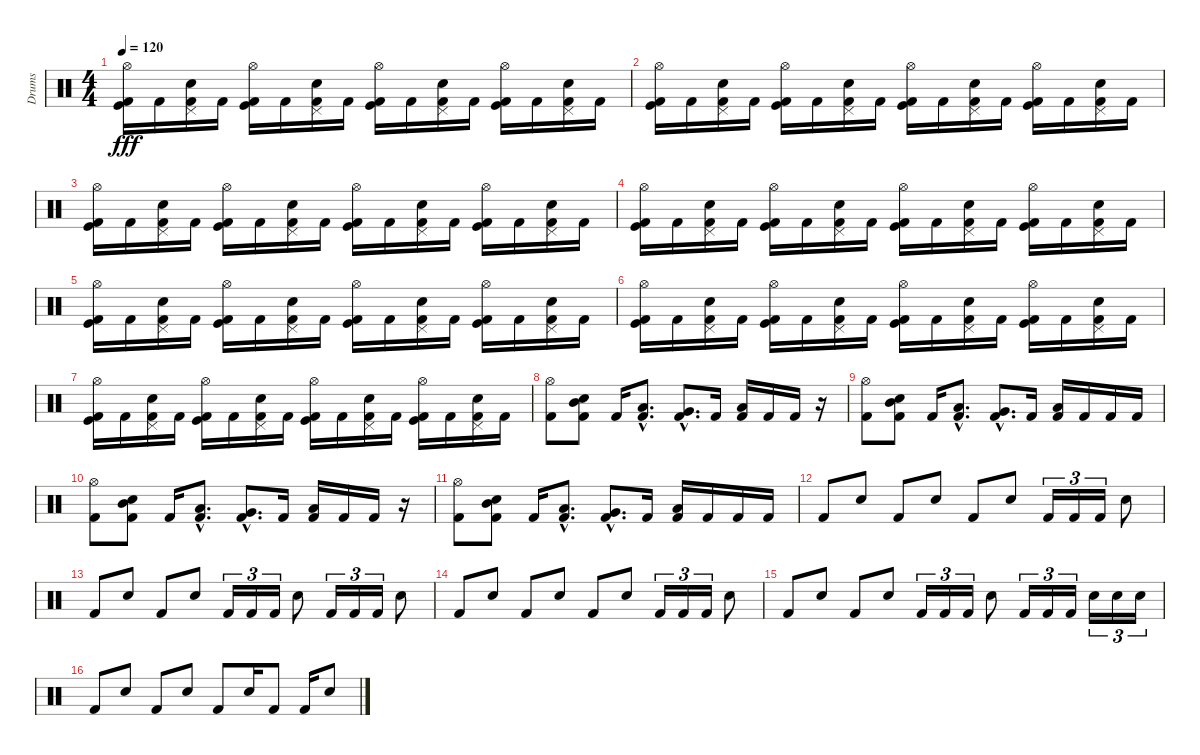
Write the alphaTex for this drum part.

\track ("Drums" "Drums") {instrument percussion}
\staff {score}
\articulation defaults
\ts (4 4)
\tempo 120
\clef neutral
\ks c
("Hi-Hat (open)" "Kick (hit) 2" "Kick (hit)").16{dy fff} "Kick (hit) 2".16 ("Pedal Hi-Hat (hit)" "Snare (hit) 2" "Kick (hit) 2").16 "Kick (hit) 2".16 ("Hi-Hat (open)" "Kick (hit) 2" "Kick (hit)").16 "Kick (hit) 2".16 ("Pedal Hi-Hat (hit)" "Snare (hit) 2" "Kick (hit) 2").16 "Kick (hit) 2".16 ("Hi-Hat (open)" "Kick (hit) 2" "Kick (hit)").16 "Kick (hit) 2".16 ("Pedal Hi-Hat (hit)" "Snare (hit) 2" "Kick (hit) 2").16 "Kick (hit) 2".16 ("Hi-Hat (open)" "Kick (hit) 2" "Kick (hit)").16 "Kick (hit) 2".16 ("Pedal Hi-Hat (hit)" "Snare (hit) 2" "Kick (hit) 2").16 "Kick (hit) 2".16 |
("Hi-Hat (open)" "Kick (hit) 2" "Kick (hit)").16 "Kick (hit) 2".16 ("Pedal Hi-Hat (hit)" "Snare (hit) 2" "Kick (hit) 2").16 "Kick (hit) 2".16 ("Hi-Hat (open)" "Kick (hit) 2" "Kick (hit)").16 "Kick (hit) 2".16 ("Pedal Hi-Hat (hit)" "Snare (hit) 2" "Kick (hit) 2").16 "Kick (hit) 2".16 ("Hi-Hat (open)" "Kick (hit) 2" "Kick (hit)").16 "Kick (hit) 2".16 ("Pedal Hi-Hat (hit)" "Snare (hit) 2" "Kick (hit) 2").16 "Kick (hit) 2".16 ("Hi-Hat (open)" "Kick (hit) 2" "Kick (hit)").16 "Kick (hit) 2".16 ("Pedal Hi-Hat (hit)" "Snare (hit) 2" "Kick (hit) 2").16 "Kick (hit) 2".16 |
("Hi-Hat (open)" "Kick (hit) 2" "Kick (hit)").16 "Kick (hit) 2".16 ("Pedal Hi-Hat (hit)" "Snare (hit) 2" "Kick (hit) 2").16 "Kick (hit) 2".16 ("Hi-Hat (open)" "Kick (hit) 2" "Kick (hit)").16 "Kick (hit) 2".16 ("Pedal Hi-Hat (hit)" "Snare (hit) 2" "Kick (hit) 2").16 "Kick (hit) 2".16 ("Hi-Hat (open)" "Kick (hit) 2" "Kick (hit)").16 "Kick (hit) 2".16 ("Pedal Hi-Hat (hit)" "Snare (hit) 2" "Kick (hit) 2").16 "Kick (hit) 2".16 ("Hi-Hat (open)" "Kick (hit) 2" "Kick (hit)").16 "Kick (hit) 2".16 ("Pedal Hi-Hat (hit)" "Snare (hit) 2" "Kick (hit) 2").16 "Kick (hit) 2".16 |
("Hi-Hat (open)" "Kick (hit) 2" "Kick (hit)").16 "Kick (hit) 2".16 ("Pedal Hi-Hat (hit)" "Snare (hit) 2" "Kick (hit) 2").16 "Kick (hit) 2".16 ("Hi-Hat (open)" "Kick (hit) 2" "Kick (hit)").16 "Kick (hit) 2".16 ("Pedal Hi-Hat (hit)" "Snare (hit) 2" "Kick (hit) 2").16 "Kick (hit) 2".16 ("Hi-Hat (open)" "Kick (hit) 2" "Kick (hit)").16 "Kick (hit) 2".16 ("Pedal Hi-Hat (hit)" "Snare (hit) 2" "Kick (hit) 2").16 "Kick (hit) 2".16 ("Hi-Hat (open)" "Kick (hit) 2" "Kick (hit)").16 "Kick (hit) 2".16 ("Pedal Hi-Hat (hit)" "Snare (hit) 2" "Kick (hit) 2").16 "Kick (hit) 2".16 |
("Hi-Hat (open)" "Kick (hit) 2" "Kick (hit)").16 "Kick (hit) 2".16 ("Pedal Hi-Hat (hit)" "Snare (hit) 2" "Kick (hit) 2").16 "Kick (hit) 2".16 ("Hi-Hat (open)" "Kick (hit) 2" "Kick (hit)").16 "Kick (hit) 2".16 ("Pedal Hi-Hat (hit)" "Snare (hit) 2" "Kick (hit) 2").16 "Kick (hit) 2".16 ("Hi-Hat (open)" "Kick (hit) 2" "Kick (hit)").16 "Kick (hit) 2".16 ("Pedal Hi-Hat (hit)" "Snare (hit) 2" "Kick (hit) 2").16 "Kick (hit) 2".16 ("Hi-Hat (open)" "Kick (hit) 2" "Kick (hit)").16 "Kick (hit) 2".16 ("Pedal Hi-Hat (hit)" "Snare (hit) 2" "Kick (hit) 2").16 "Kick (hit) 2".16 |
("Hi-Hat (open)" "Kick (hit) 2" "Kick (hit)").16 "Kick (hit) 2".16 ("Pedal Hi-Hat (hit)" "Snare (hit) 2" "Kick (hit) 2").16 "Kick (hit) 2".16 ("Hi-Hat (open)" "Kick (hit) 2" "Kick (hit)").16 "Kick (hit) 2".16 ("Pedal Hi-Hat (hit)" "Snare (hit) 2" "Kick (hit) 2").16 "Kick (hit) 2".16 ("Hi-Hat (open)" "Kick (hit) 2" "Kick (hit)").16 "Kick (hit) 2".16 ("Pedal Hi-Hat (hit)" "Snare (hit) 2" "Kick (hit) 2").16 "Kick (hit) 2".16 ("Hi-Hat (open)" "Kick (hit) 2" "Kick (hit)").16 "Kick (hit) 2".16 ("Pedal Hi-Hat (hit)" "Snare (hit) 2" "Kick (hit) 2").16 "Kick (hit) 2".16 |
("Hi-Hat (open)" "Kick (hit) 2" "Kick (hit)").16 "Kick (hit) 2".16 ("Pedal Hi-Hat (hit)" "Snare (hit) 2" "Kick (hit) 2").16 "Kick (hit) 2".16 ("Hi-Hat (open)" "Kick (hit) 2" "Kick (hit)").16 "Kick (hit) 2".16 ("Pedal Hi-Hat (hit)" "Snare (hit) 2" "Kick (hit) 2").16 "Kick (hit) 2".16 ("Hi-Hat (open)" "Kick (hit) 2" "Kick (hit)").16 "Kick (hit) 2".16 ("Pedal Hi-Hat (hit)" "Snare (hit) 2" "Kick (hit) 2").16 "Kick (hit) 2".16 ("Hi-Hat (open)" "Kick (hit) 2" "Kick (hit)").16 "Kick (hit) 2".16 ("Pedal Hi-Hat (hit)" "Snare (hit) 2" "Kick (hit) 2").16 "Kick (hit) 2".16 |
("Kick (hit) 2" "Hi-Hat (open)").8 ("Mid Tom (hit)" "Snare (hit) 2" "Kick (hit) 2").8 "Kick (hit) 2".16 ("Low Tom (hit)"{hac} "Kick (hit) 2"{hac}).8{d} ("Very Low Tom (hit)"{hac} "Kick (hit) 2"{hac}).8{d} "Kick (hit) 2".16 ("Low Floor Tom (hit)" "Kick (hit) 2").16 "Kick (hit) 2".16 "Kick (hit) 2".16 r.16 |
("Kick (hit) 2" "Hi-Hat (open)").8 ("Mid Tom (hit)" "Snare (hit) 2" "Kick (hit) 2").8 "Kick (hit) 2".16 ("Low Tom (hit)"{hac} "Kick (hit) 2"{hac}).8{d} ("Very Low Tom (hit)"{hac} "Kick (hit) 2"{hac}).8{d} "Kick (hit) 2".16 ("Low Floor Tom (hit)" "Kick (hit) 2").16 "Kick (hit) 2".16 "Kick (hit) 2".16 "Kick (hit) 2".16 |
("Kick (hit) 2" "Hi-Hat (open)").8 ("Mid Tom (hit)" "Snare (hit) 2" "Kick (hit) 2").8 "Kick (hit) 2".16 ("Low Tom (hit)"{hac} "Kick (hit) 2"{hac}).8{d} ("Very Low Tom (hit)"{hac} "Kick (hit) 2"{hac}).8{d} "Kick (hit) 2".16 ("Low Floor Tom (hit)" "Kick (hit) 2").16 "Kick (hit) 2".16 "Kick (hit) 2".16 r.16 |
("Kick (hit) 2" "Hi-Hat (open)").8 ("Mid Tom (hit)" "Snare (hit) 2" "Kick (hit) 2").8 "Kick (hit) 2".16 ("Low Tom (hit)"{hac} "Kick (hit) 2"{hac}).8{d} ("Very Low Tom (hit)"{hac} "Kick (hit) 2"{hac}).8{d} "Kick (hit) 2".16 ("Low Floor Tom (hit)" "Kick (hit) 2").16 "Kick (hit) 2".16 "Kick (hit) 2".16 "Kick (hit) 2".16 |
"Kick (hit) 2".8 "Snare (hit) 2".8 "Kick (hit) 2".8 "Snare (hit) 2".8 "Kick (hit) 2".8 "Snare (hit) 2".8 "Kick (hit) 2".16{tu (3 2)} "Kick (hit) 2".16{tu (3 2)} "Kick (hit) 2".16{tu (3 2)} "Snare (hit) 2".8 |
"Kick (hit) 2".8 "Snare (hit) 2".8 "Kick (hit) 2".8 "Snare (hit) 2".8 "Kick (hit) 2".16{tu (3 2)} "Kick (hit) 2".16{tu (3 2)} "Kick (hit) 2".16{tu (3 2)} "Snare (hit) 2".8 "Kick (hit) 2".16{tu (3 2)} "Kick (hit) 2".16{tu (3 2)} "Kick (hit) 2".16{tu (3 2)} "Snare (hit) 2".8 |
"Kick (hit) 2".8 "Snare (hit) 2".8 "Kick (hit) 2".8 "Snare (hit) 2".8 "Kick (hit) 2".8 "Snare (hit) 2".8 "Kick (hit) 2".16{tu (3 2)} "Kick (hit) 2".16{tu (3 2)} "Kick (hit) 2".16{tu (3 2)} "Snare (hit) 2".8 |
"Kick (hit) 2".8 "Snare (hit) 2".8 "Kick (hit) 2".8 "Snare (hit) 2".8 "Kick (hit) 2".16{tu (3 2)} "Kick (hit) 2".16{tu (3 2)} "Kick (hit) 2".16{tu (3 2)} "Snare (hit) 2".8 "Kick (hit) 2".16{tu (3 2)} "Kick (hit) 2".16{tu (3 2)} "Kick (hit) 2".16{tu (3 2)} "Snare (hit) 2".16{tu (3 2)} "Snare (hit) 2".16{tu (3 2)} "Snare (hit) 2".16{tu (3 2)} |
"Kick (hit) 2".8 "Snare (hit) 2".8 "Kick (hit) 2".8 "Snare (hit) 2".8 "Kick (hit) 2".8 "Snare (hit) 2".16 "Kick (hit) 2".8 "Kick (hit) 2".16 "Snare (hit) 2".8
